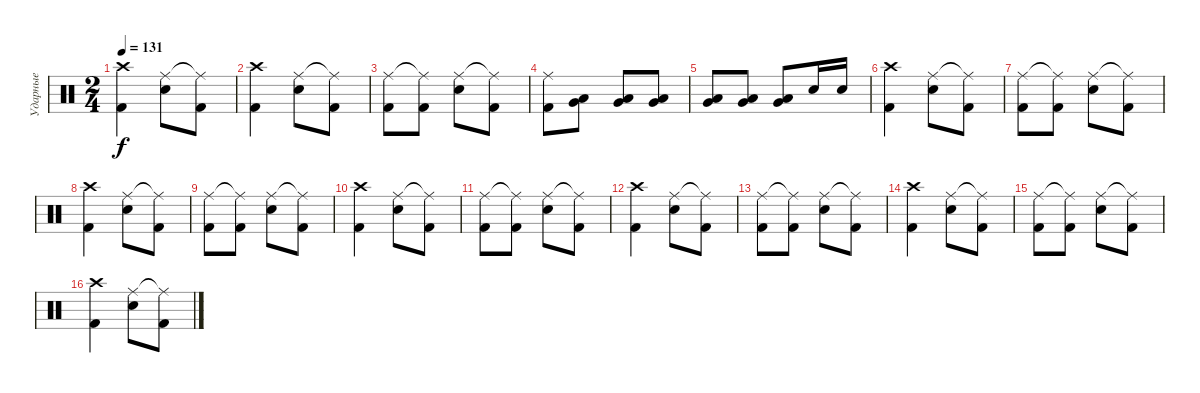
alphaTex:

\track ("Ударные" "Ударные") {instrument percussion}
\staff {score}
\articulation defaults
\ts (2 4)
\tempo 131
\clef neutral
\ks c
("Crash high (hit)" "Kick (hit) 2").4{dy f} ("Ride (middle)" "Electric Snare (hit)").8 ("Ride (middle)"{t} "Kick (hit) 2").8 |
("Crash high (hit)" "Kick (hit) 2").4 ("Ride (middle)" "Electric Snare (hit)").8 ("Ride (middle)"{t} "Kick (hit) 2").8 |
("Ride (middle)" "Kick (hit) 2").8 ("Ride (middle)"{t} "Kick (hit) 2").8 ("Ride (middle)" "Electric Snare (hit)").8 ("Ride (middle)"{t} "Kick (hit) 2").8 |
("Ride (middle)" "Kick (hit) 2").8 ("Very Low Tom (hit)" "Low Tom (hit)").8 ("Very Low Tom (hit)" "Low Tom (hit)").8 ("Very Low Tom (hit)" "Low Tom (hit)").8 |
("Very Low Tom (hit)" "Low Tom (hit)").8 ("Very Low Tom (hit)" "Low Tom (hit)").8 ("Very Low Tom (hit)" "Low Tom (hit)").8 "Electric Snare (hit)".16 "Electric Snare (hit)".16 |
("Crash high (hit)" "Kick (hit) 2").4 ("Ride (middle)" "Electric Snare (hit)").8 ("Ride (middle)"{t} "Kick (hit) 2").8 |
("Ride (middle)" "Kick (hit) 2").8 ("Ride (middle)"{t} "Kick (hit) 2").8 ("Ride (middle)" "Electric Snare (hit)").8 ("Ride (middle)"{t} "Kick (hit) 2").8 |
("Crash high (hit)" "Kick (hit) 2").4 ("Ride (middle)" "Electric Snare (hit)").8 ("Ride (middle)"{t} "Kick (hit) 2").8 |
("Ride (middle)" "Kick (hit) 2").8 ("Ride (middle)"{t} "Kick (hit) 2").8 ("Ride (middle)" "Electric Snare (hit)").8 ("Ride (middle)"{t} "Kick (hit) 2").8 |
("Crash high (hit)" "Kick (hit) 2").4 ("Ride (middle)" "Electric Snare (hit)").8 ("Ride (middle)"{t} "Kick (hit) 2").8 |
("Ride (middle)" "Kick (hit) 2").8 ("Ride (middle)"{t} "Kick (hit) 2").8 ("Ride (middle)" "Electric Snare (hit)").8 ("Ride (middle)"{t} "Kick (hit) 2").8 |
("Crash high (hit)" "Kick (hit) 2").4 ("Ride (middle)" "Electric Snare (hit)").8 ("Ride (middle)"{t} "Kick (hit) 2").8 |
("Ride (middle)" "Kick (hit) 2").8 ("Ride (middle)"{t} "Kick (hit) 2").8 ("Ride (middle)" "Electric Snare (hit)").8 ("Ride (middle)"{t} "Kick (hit) 2").8 |
("Crash high (hit)" "Kick (hit) 2").4 ("Ride (middle)" "Electric Snare (hit)").8 ("Ride (middle)"{t} "Kick (hit) 2").8 |
("Ride (middle)" "Kick (hit) 2").8 ("Ride (middle)"{t} "Kick (hit) 2").8 ("Ride (middle)" "Electric Snare (hit)").8 ("Ride (middle)"{t} "Kick (hit) 2").8 |
("Crash high (hit)" "Kick (hit) 2").4 ("Ride (middle)" "Electric Snare (hit)").8 ("Ride (middle)"{t} "Kick (hit) 2").8
